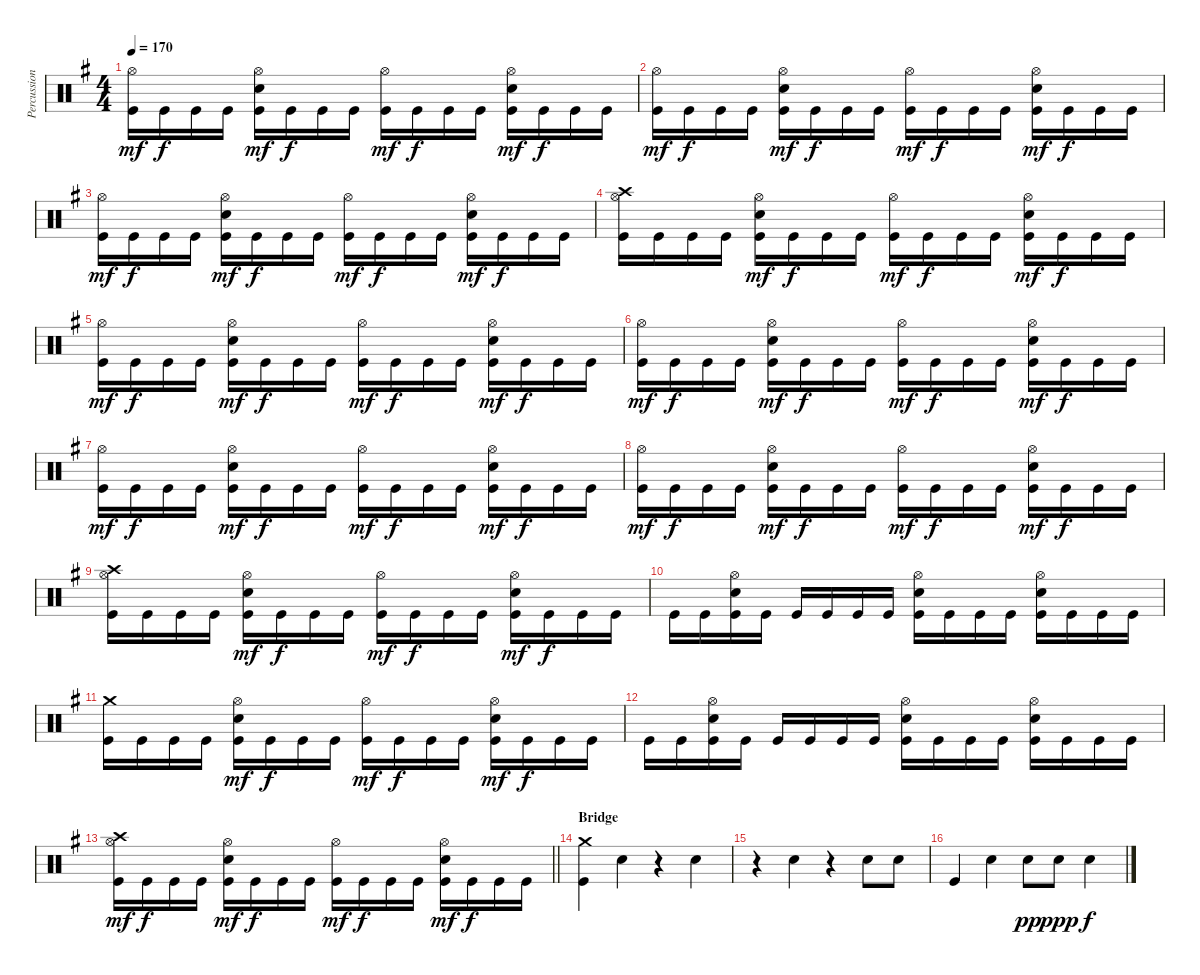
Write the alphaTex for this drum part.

\track ("Percussion" "Percussion") {instrument percussion}
\staff {score}
\articulation defaults
\ts (4 4)
\tempo 170
\clef neutral
\ks g
("Hi-Hat (open)" "Kick (hit)").16{dy mf} "Kick (hit)".16{dy f} "Kick (hit)".16 "Kick (hit)".16 ("Hi-Hat (open)" "Snare (hit) 2" "Kick (hit)").16{dy mf} "Kick (hit)".16{dy f} "Kick (hit)".16 "Kick (hit)".16 ("Hi-Hat (open)" "Kick (hit)").16{dy mf} "Kick (hit)".16{dy f} "Kick (hit)".16 "Kick (hit)".16 ("Hi-Hat (open)" "Snare (hit) 2" "Kick (hit)").16{dy mf} "Kick (hit)".16{dy f} "Kick (hit)".16 "Kick (hit)".16 |
("Hi-Hat (open)" "Kick (hit)").16{dy mf} "Kick (hit)".16{dy f} "Kick (hit)".16 "Kick (hit)".16 ("Hi-Hat (open)" "Snare (hit) 2" "Kick (hit)").16{dy mf} "Kick (hit)".16{dy f} "Kick (hit)".16 "Kick (hit)".16 ("Hi-Hat (open)" "Kick (hit)").16{dy mf} "Kick (hit)".16{dy f} "Kick (hit)".16 "Kick (hit)".16 ("Hi-Hat (open)" "Snare (hit) 2" "Kick (hit)").16{dy mf} "Kick (hit)".16{dy f} "Kick (hit)".16 "Kick (hit)".16 |
("Hi-Hat (open)" "Kick (hit)").16{dy mf} "Kick (hit)".16{dy f} "Kick (hit)".16 "Kick (hit)".16 ("Hi-Hat (open)" "Snare (hit) 2" "Kick (hit)").16{dy mf} "Kick (hit)".16{dy f} "Kick (hit)".16 "Kick (hit)".16 ("Hi-Hat (open)" "Kick (hit)").16{dy mf} "Kick (hit)".16{dy f} "Kick (hit)".16 "Kick (hit)".16 ("Hi-Hat (open)" "Snare (hit) 2" "Kick (hit)").16{dy mf} "Kick (hit)".16{dy f} "Kick (hit)".16 "Kick (hit)".16 |
("Crash high (hit)" "Hi-Hat (open)" "Kick (hit)").16 "Kick (hit)".16 "Kick (hit)".16 "Kick (hit)".16 ("Hi-Hat (open)" "Snare (hit) 2" "Kick (hit)").16{dy mf} "Kick (hit)".16{dy f} "Kick (hit)".16 "Kick (hit)".16 ("Hi-Hat (open)" "Kick (hit)").16{dy mf} "Kick (hit)".16{dy f} "Kick (hit)".16 "Kick (hit)".16 ("Hi-Hat (open)" "Snare (hit) 2" "Kick (hit)").16{dy mf} "Kick (hit)".16{dy f} "Kick (hit)".16 "Kick (hit)".16 |
("Hi-Hat (open)" "Kick (hit)").16{dy mf} "Kick (hit)".16{dy f} "Kick (hit)".16 "Kick (hit)".16 ("Hi-Hat (open)" "Snare (hit) 2" "Kick (hit)").16{dy mf} "Kick (hit)".16{dy f} "Kick (hit)".16 "Kick (hit)".16 ("Hi-Hat (open)" "Kick (hit)").16{dy mf} "Kick (hit)".16{dy f} "Kick (hit)".16 "Kick (hit)".16 ("Hi-Hat (open)" "Snare (hit) 2" "Kick (hit)").16{dy mf} "Kick (hit)".16{dy f} "Kick (hit)".16 "Kick (hit)".16 |
("Hi-Hat (open)" "Kick (hit)").16{dy mf} "Kick (hit)".16{dy f} "Kick (hit)".16 "Kick (hit)".16 ("Hi-Hat (open)" "Snare (hit) 2" "Kick (hit)").16{dy mf} "Kick (hit)".16{dy f} "Kick (hit)".16 "Kick (hit)".16 ("Hi-Hat (open)" "Kick (hit)").16{dy mf} "Kick (hit)".16{dy f} "Kick (hit)".16 "Kick (hit)".16 ("Hi-Hat (open)" "Snare (hit) 2" "Kick (hit)").16{dy mf} "Kick (hit)".16{dy f} "Kick (hit)".16 "Kick (hit)".16 |
("Hi-Hat (open)" "Kick (hit)").16{dy mf} "Kick (hit)".16{dy f} "Kick (hit)".16 "Kick (hit)".16 ("Hi-Hat (open)" "Snare (hit) 2" "Kick (hit)").16{dy mf} "Kick (hit)".16{dy f} "Kick (hit)".16 "Kick (hit)".16 ("Hi-Hat (open)" "Kick (hit)").16{dy mf} "Kick (hit)".16{dy f} "Kick (hit)".16 "Kick (hit)".16 ("Hi-Hat (open)" "Snare (hit) 2" "Kick (hit)").16{dy mf} "Kick (hit)".16{dy f} "Kick (hit)".16 "Kick (hit)".16 |
("Hi-Hat (open)" "Kick (hit)").16{dy mf} "Kick (hit)".16{dy f} "Kick (hit)".16 "Kick (hit)".16 ("Hi-Hat (open)" "Snare (hit) 2" "Kick (hit)").16{dy mf} "Kick (hit)".16{dy f} "Kick (hit)".16 "Kick (hit)".16 ("Hi-Hat (open)" "Kick (hit)").16{dy mf} "Kick (hit)".16{dy f} "Kick (hit)".16 "Kick (hit)".16 ("Hi-Hat (open)" "Snare (hit) 2" "Kick (hit)").16{dy mf} "Kick (hit)".16{dy f} "Kick (hit)".16 "Kick (hit)".16 |
("Crash high (hit)" "Hi-Hat (open)" "Kick (hit)").16 "Kick (hit)".16 "Kick (hit)".16 "Kick (hit)".16 ("Hi-Hat (open)" "Snare (hit) 2" "Kick (hit)").16{dy mf} "Kick (hit)".16{dy f} "Kick (hit)".16 "Kick (hit)".16 ("Hi-Hat (open)" "Kick (hit)").16{dy mf} "Kick (hit)".16{dy f} "Kick (hit)".16 "Kick (hit)".16 ("Hi-Hat (open)" "Snare (hit) 2" "Kick (hit)").16{dy mf} "Kick (hit)".16{dy f} "Kick (hit)".16 "Kick (hit)".16 |
"Kick (hit)".16 "Kick (hit)".16 ("Hi-Hat (open)" "Snare (hit) 2" "Kick (hit)").16 "Kick (hit)".16 "Kick (hit)".16 "Kick (hit)".16 "Kick (hit)".16 "Kick (hit)".16 ("Hi-Hat (open)" "Snare (hit) 2" "Kick (hit)").16 "Kick (hit)".16 "Kick (hit)".16 "Kick (hit)".16 ("Hi-Hat (open)" "Snare (hit) 2" "Kick (hit)").16 "Kick (hit)".16 "Kick (hit)".16 "Kick (hit)".16 |
("Crash medium (hit)" "Kick (hit)").16 "Kick (hit)".16 "Kick (hit)".16 "Kick (hit)".16 ("Hi-Hat (open)" "Snare (hit) 2" "Kick (hit)").16{dy mf} "Kick (hit)".16{dy f} "Kick (hit)".16 "Kick (hit)".16 ("Hi-Hat (open)" "Kick (hit)").16{dy mf} "Kick (hit)".16{dy f} "Kick (hit)".16 "Kick (hit)".16 ("Hi-Hat (open)" "Snare (hit) 2" "Kick (hit)").16{dy mf} "Kick (hit)".16{dy f} "Kick (hit)".16 "Kick (hit)".16 |
"Kick (hit)".16 "Kick (hit)".16 ("Hi-Hat (open)" "Snare (hit) 2" "Kick (hit)").16 "Kick (hit)".16 "Kick (hit)".16 "Kick (hit)".16 "Kick (hit)".16 "Kick (hit)".16 ("Hi-Hat (open)" "Snare (hit) 2" "Kick (hit)").16 "Kick (hit)".16 "Kick (hit)".16 "Kick (hit)".16 ("Hi-Hat (open)" "Snare (hit) 2" "Kick (hit)").16 "Kick (hit)".16 "Kick (hit)".16 "Kick (hit)".16 |
\barLineRight lightlight
("Crash high (hit)" "Hi-Hat (open)" "Kick (hit)").16{dy mf} "Kick (hit)".16{dy f} "Kick (hit)".16 "Kick (hit)".16 ("Hi-Hat (open)" "Snare (hit) 2" "Kick (hit)").16{dy mf} "Kick (hit)".16{dy f} "Kick (hit)".16 "Kick (hit)".16 ("Hi-Hat (open)" "Kick (hit)").16{dy mf} "Kick (hit)".16{dy f} "Kick (hit)".16 "Kick (hit)".16 ("Hi-Hat (open)" "Snare (hit) 2" "Kick (hit)").16{dy mf} "Kick (hit)".16{dy f} "Kick (hit)".16 "Kick (hit)".16 |
\section ("" "Bridge")
("Crash medium (hit)" "Kick (hit)").4 "Snare (hit) 2".4 r.4 "Snare (hit) 2".4 |
r.4 "Snare (hit) 2".4 r.4 "Snare (hit) 2".8 "Snare (hit) 2".8 |
"Kick (hit)".4 "Snare (hit) 2".4 "Snare (hit) 2".8{dy pp} "Snare (hit) 2".8{dy ppp} "Snare (hit) 2".4{dy f}
